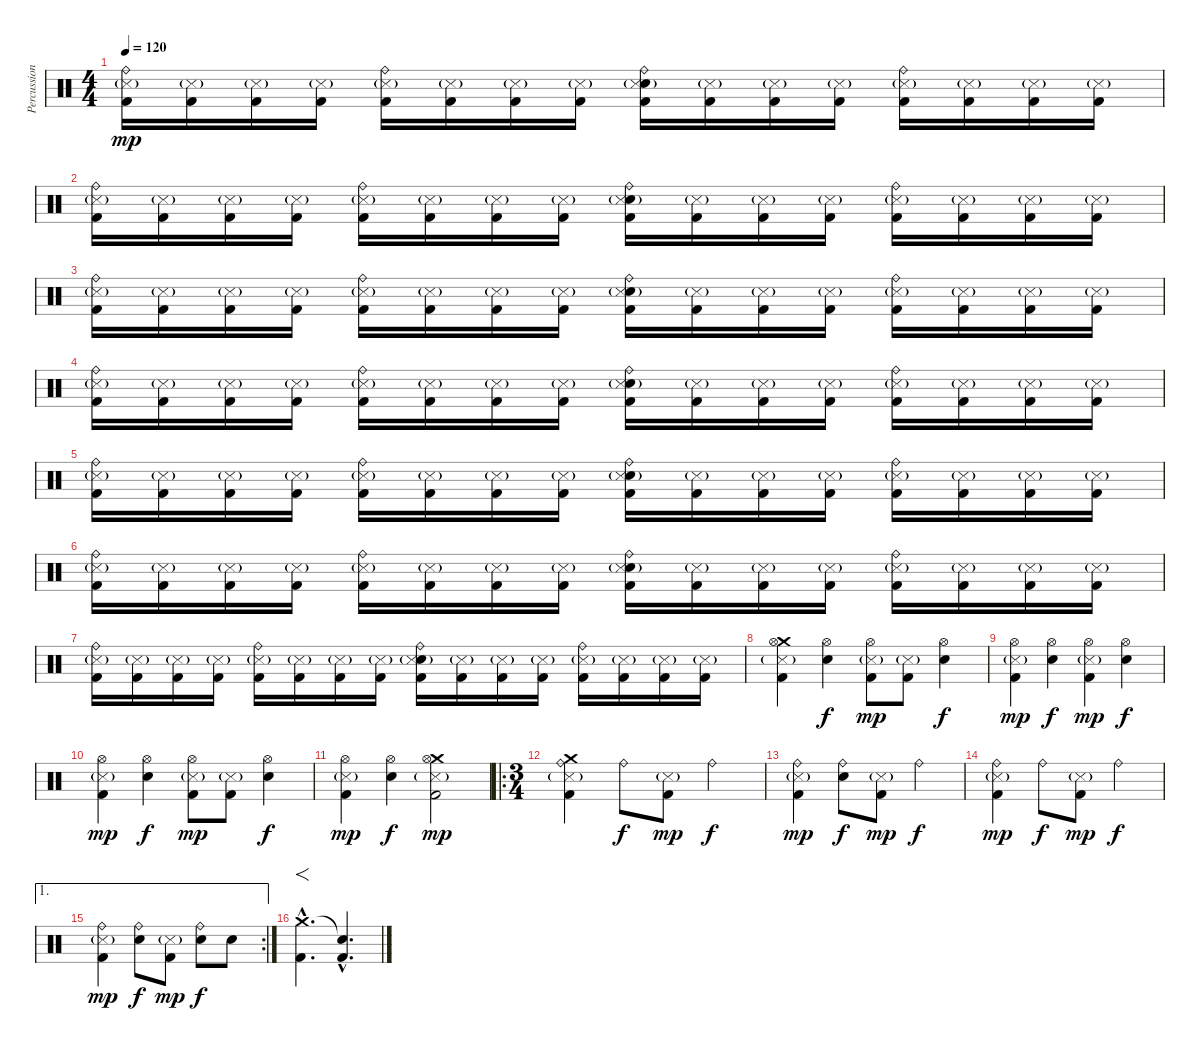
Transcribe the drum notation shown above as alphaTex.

\track ("Percussion" "Percussion") {instrument percussion}
\staff {score}
\articulation defaults
\ts (4 4)
\tempo 120
\clef neutral
\ks c
("Ride (bell)" "Snare (side stick) 3"{g} "Kick (hit) 2").16{dy mp} ("Snare (side stick) 3"{g} "Kick (hit) 2").16 ("Snare (side stick) 3"{g} "Kick (hit) 2").16 ("Snare (side stick) 3"{g} "Kick (hit) 2").16 ("Ride (bell)" "Snare (side stick) 3"{g} "Kick (hit) 2").16 ("Snare (side stick) 3"{g} "Kick (hit) 2").16 ("Snare (side stick) 3"{g} "Kick (hit) 2").16 ("Snare (side stick) 3"{g} "Kick (hit) 2").16 ("Ride (bell)" "Electric Snare (hit)" "Snare (side stick) 3"{g} "Kick (hit) 2").16 ("Snare (side stick) 3"{g} "Kick (hit) 2").16 ("Snare (side stick) 3"{g} "Kick (hit) 2").16 ("Snare (side stick) 3"{g} "Kick (hit) 2").16 ("Ride (bell)" "Snare (side stick) 3"{g} "Kick (hit) 2").16 ("Snare (side stick) 3"{g} "Kick (hit) 2").16 ("Snare (side stick) 3"{g} "Kick (hit) 2").16 ("Snare (side stick) 3"{g} "Kick (hit) 2").16 |
("Ride (bell)" "Snare (side stick) 3"{g} "Kick (hit) 2").16 ("Snare (side stick) 3"{g} "Kick (hit) 2").16 ("Snare (side stick) 3"{g} "Kick (hit) 2").16 ("Snare (side stick) 3"{g} "Kick (hit) 2").16 ("Ride (bell)" "Snare (side stick) 3"{g} "Kick (hit) 2").16 ("Snare (side stick) 3"{g} "Kick (hit) 2").16 ("Snare (side stick) 3"{g} "Kick (hit) 2").16 ("Snare (side stick) 3"{g} "Kick (hit) 2").16 ("Ride (bell)" "Electric Snare (hit)" "Snare (side stick) 3"{g} "Kick (hit) 2").16 ("Snare (side stick) 3"{g} "Kick (hit) 2").16 ("Snare (side stick) 3"{g} "Kick (hit) 2").16 ("Snare (side stick) 3"{g} "Kick (hit) 2").16 ("Ride (bell)" "Snare (side stick) 3"{g} "Kick (hit) 2").16 ("Snare (side stick) 3"{g} "Kick (hit) 2").16 ("Snare (side stick) 3"{g} "Kick (hit) 2").16 ("Snare (side stick) 3"{g} "Kick (hit) 2").16 |
("Ride (bell)" "Snare (side stick) 3"{g} "Kick (hit) 2").16 ("Snare (side stick) 3"{g} "Kick (hit) 2").16 ("Snare (side stick) 3"{g} "Kick (hit) 2").16 ("Snare (side stick) 3"{g} "Kick (hit) 2").16 ("Ride (bell)" "Snare (side stick) 3"{g} "Kick (hit) 2").16 ("Snare (side stick) 3"{g} "Kick (hit) 2").16 ("Snare (side stick) 3"{g} "Kick (hit) 2").16 ("Snare (side stick) 3"{g} "Kick (hit) 2").16 ("Ride (bell)" "Electric Snare (hit)" "Snare (side stick) 3"{g} "Kick (hit) 2").16 ("Snare (side stick) 3"{g} "Kick (hit) 2").16 ("Snare (side stick) 3"{g} "Kick (hit) 2").16 ("Snare (side stick) 3"{g} "Kick (hit) 2").16 ("Ride (bell)" "Snare (side stick) 3"{g} "Kick (hit) 2").16 ("Snare (side stick) 3"{g} "Kick (hit) 2").16 ("Snare (side stick) 3"{g} "Kick (hit) 2").16 ("Snare (side stick) 3"{g} "Kick (hit) 2").16 |
("Ride (bell)" "Snare (side stick) 3"{g} "Kick (hit) 2").16 ("Snare (side stick) 3"{g} "Kick (hit) 2").16 ("Snare (side stick) 3"{g} "Kick (hit) 2").16 ("Snare (side stick) 3"{g} "Kick (hit) 2").16 ("Ride (bell)" "Snare (side stick) 3"{g} "Kick (hit) 2").16 ("Snare (side stick) 3"{g} "Kick (hit) 2").16 ("Snare (side stick) 3"{g} "Kick (hit) 2").16 ("Snare (side stick) 3"{g} "Kick (hit) 2").16 ("Ride (bell)" "Electric Snare (hit)" "Snare (side stick) 3"{g} "Kick (hit) 2").16 ("Snare (side stick) 3"{g} "Kick (hit) 2").16 ("Snare (side stick) 3"{g} "Kick (hit) 2").16 ("Snare (side stick) 3"{g} "Kick (hit) 2").16 ("Ride (bell)" "Snare (side stick) 3"{g} "Kick (hit) 2").16 ("Snare (side stick) 3"{g} "Kick (hit) 2").16 ("Snare (side stick) 3"{g} "Kick (hit) 2").16 ("Snare (side stick) 3"{g} "Kick (hit) 2").16 |
("Ride (bell)" "Snare (side stick) 3"{g} "Kick (hit) 2").16 ("Snare (side stick) 3"{g} "Kick (hit) 2").16 ("Snare (side stick) 3"{g} "Kick (hit) 2").16 ("Snare (side stick) 3"{g} "Kick (hit) 2").16 ("Ride (bell)" "Snare (side stick) 3"{g} "Kick (hit) 2").16 ("Snare (side stick) 3"{g} "Kick (hit) 2").16 ("Snare (side stick) 3"{g} "Kick (hit) 2").16 ("Snare (side stick) 3"{g} "Kick (hit) 2").16 ("Ride (bell)" "Electric Snare (hit)" "Snare (side stick) 3"{g} "Kick (hit) 2").16 ("Snare (side stick) 3"{g} "Kick (hit) 2").16 ("Snare (side stick) 3"{g} "Kick (hit) 2").16 ("Snare (side stick) 3"{g} "Kick (hit) 2").16 ("Ride (bell)" "Snare (side stick) 3"{g} "Kick (hit) 2").16 ("Snare (side stick) 3"{g} "Kick (hit) 2").16 ("Snare (side stick) 3"{g} "Kick (hit) 2").16 ("Snare (side stick) 3"{g} "Kick (hit) 2").16 |
("Ride (bell)" "Snare (side stick) 3"{g} "Kick (hit) 2").16 ("Snare (side stick) 3"{g} "Kick (hit) 2").16 ("Snare (side stick) 3"{g} "Kick (hit) 2").16 ("Snare (side stick) 3"{g} "Kick (hit) 2").16 ("Ride (bell)" "Snare (side stick) 3"{g} "Kick (hit) 2").16 ("Snare (side stick) 3"{g} "Kick (hit) 2").16 ("Snare (side stick) 3"{g} "Kick (hit) 2").16 ("Snare (side stick) 3"{g} "Kick (hit) 2").16 ("Ride (bell)" "Electric Snare (hit)" "Snare (side stick) 3"{g} "Kick (hit) 2").16 ("Snare (side stick) 3"{g} "Kick (hit) 2").16 ("Snare (side stick) 3"{g} "Kick (hit) 2").16 ("Snare (side stick) 3"{g} "Kick (hit) 2").16 ("Ride (bell)" "Snare (side stick) 3"{g} "Kick (hit) 2").16 ("Snare (side stick) 3"{g} "Kick (hit) 2").16 ("Snare (side stick) 3"{g} "Kick (hit) 2").16 ("Snare (side stick) 3"{g} "Kick (hit) 2").16 |
("Ride (bell)" "Snare (side stick) 3"{g} "Kick (hit) 2").16 ("Snare (side stick) 3"{g} "Kick (hit) 2").16 ("Snare (side stick) 3"{g} "Kick (hit) 2").16 ("Snare (side stick) 3"{g} "Kick (hit) 2").16 ("Ride (bell)" "Snare (side stick) 3"{g} "Kick (hit) 2").16 ("Snare (side stick) 3"{g} "Kick (hit) 2").16 ("Snare (side stick) 3"{g} "Kick (hit) 2").16 ("Snare (side stick) 3"{g} "Kick (hit) 2").16 ("Ride (bell)" "Electric Snare (hit)" "Snare (side stick) 3"{g} "Kick (hit) 2").16 ("Snare (side stick) 3"{g} "Kick (hit) 2").16 ("Snare (side stick) 3"{g} "Kick (hit) 2").16 ("Snare (side stick) 3"{g} "Kick (hit) 2").16 ("Ride (bell)" "Snare (side stick) 3"{g} "Kick (hit) 2").16 ("Snare (side stick) 3"{g} "Kick (hit) 2").16 ("Snare (side stick) 3"{g} "Kick (hit) 2").16 ("Snare (side stick) 3"{g} "Kick (hit) 2").16 |
("Crash medium (hit)" "Hi-Hat (open)" "Snare (side stick) 3"{g} "Kick (hit) 2").4 ("Hi-Hat (open)" "Electric Snare (hit)").4{dy f} ("Hi-Hat (open)" "Snare (side stick) 3"{g} "Kick (hit) 2").8{dy mp} ("Snare (side stick) 3"{g} "Kick (hit) 2").8 ("Hi-Hat (open)" "Electric Snare (hit)").4{dy f} |
("Hi-Hat (open)" "Snare (side stick) 3"{g} "Kick (hit) 2").4{dy mp} ("Hi-Hat (open)" "Electric Snare (hit)").4{dy f} ("Hi-Hat (open)" "Snare (side stick) 3"{g} "Kick (hit) 2").4{dy mp} ("Hi-Hat (open)" "Electric Snare (hit)").4{dy f} |
("Hi-Hat (open)" "Snare (side stick) 3"{g} "Kick (hit) 2").4{dy mp} ("Hi-Hat (open)" "Electric Snare (hit)").4{dy f} ("Hi-Hat (open)" "Snare (side stick) 3"{g} "Kick (hit) 2").8{dy mp} ("Snare (side stick) 3"{g} "Kick (hit) 2").8 ("Hi-Hat (open)" "Electric Snare (hit)").4{dy f} |
("Hi-Hat (open)" "Snare (side stick) 3"{g} "Kick (hit) 2").4{dy mp} ("Hi-Hat (open)" "Electric Snare (hit)").4{dy f} ("Crash medium (hit)" "Hi-Hat (open)" "Snare (side stick) 3"{g} "Kick (hit) 2").2{dy mp} |
\ro
\ts (3 4)
("Crash medium (hit)" "Ride (bell)" "Snare (side stick) 3"{g} "Kick (hit) 2").4 "Ride (bell)".8{dy f} ("Snare (side stick) 3"{g} "Kick (hit) 2").8{dy mp} "Ride (bell)".4{dy f} |
("Ride (bell)" "Snare (side stick) 3"{g} "Kick (hit) 2").4{dy mp} ("Ride (bell)" "Electric Snare (hit)").8{dy f} ("Snare (side stick) 3"{g} "Kick (hit) 2").8{dy mp} "Ride (bell)".4{dy f} |
("Ride (bell)" "Snare (side stick) 3"{g} "Kick (hit) 2").4{dy mp} "Ride (bell)".8{dy f} ("Snare (side stick) 3"{g} "Kick (hit) 2").8{dy mp} "Ride (bell)".4{dy f} |
\ae 1
\rc 2
("Ride (bell)" "Snare (side stick) 3"{g} "Kick (hit) 2").4{dy mp} ("Ride (bell)" "Electric Snare (hit)").8{dy f} ("Snare (side stick) 3"{g} "Kick (hit) 2").8{dy mp} ("Ride (bell)" "Electric Snare (hit)").8{dy f} "Electric Snare (hit)".8 |
("Crash medium (hit)"{hac} "Kick (hit) 2"{hac}).4{f d} ("Snare (hit)"{hac t} "Kick (hit) 2"{hac}).4{d}
